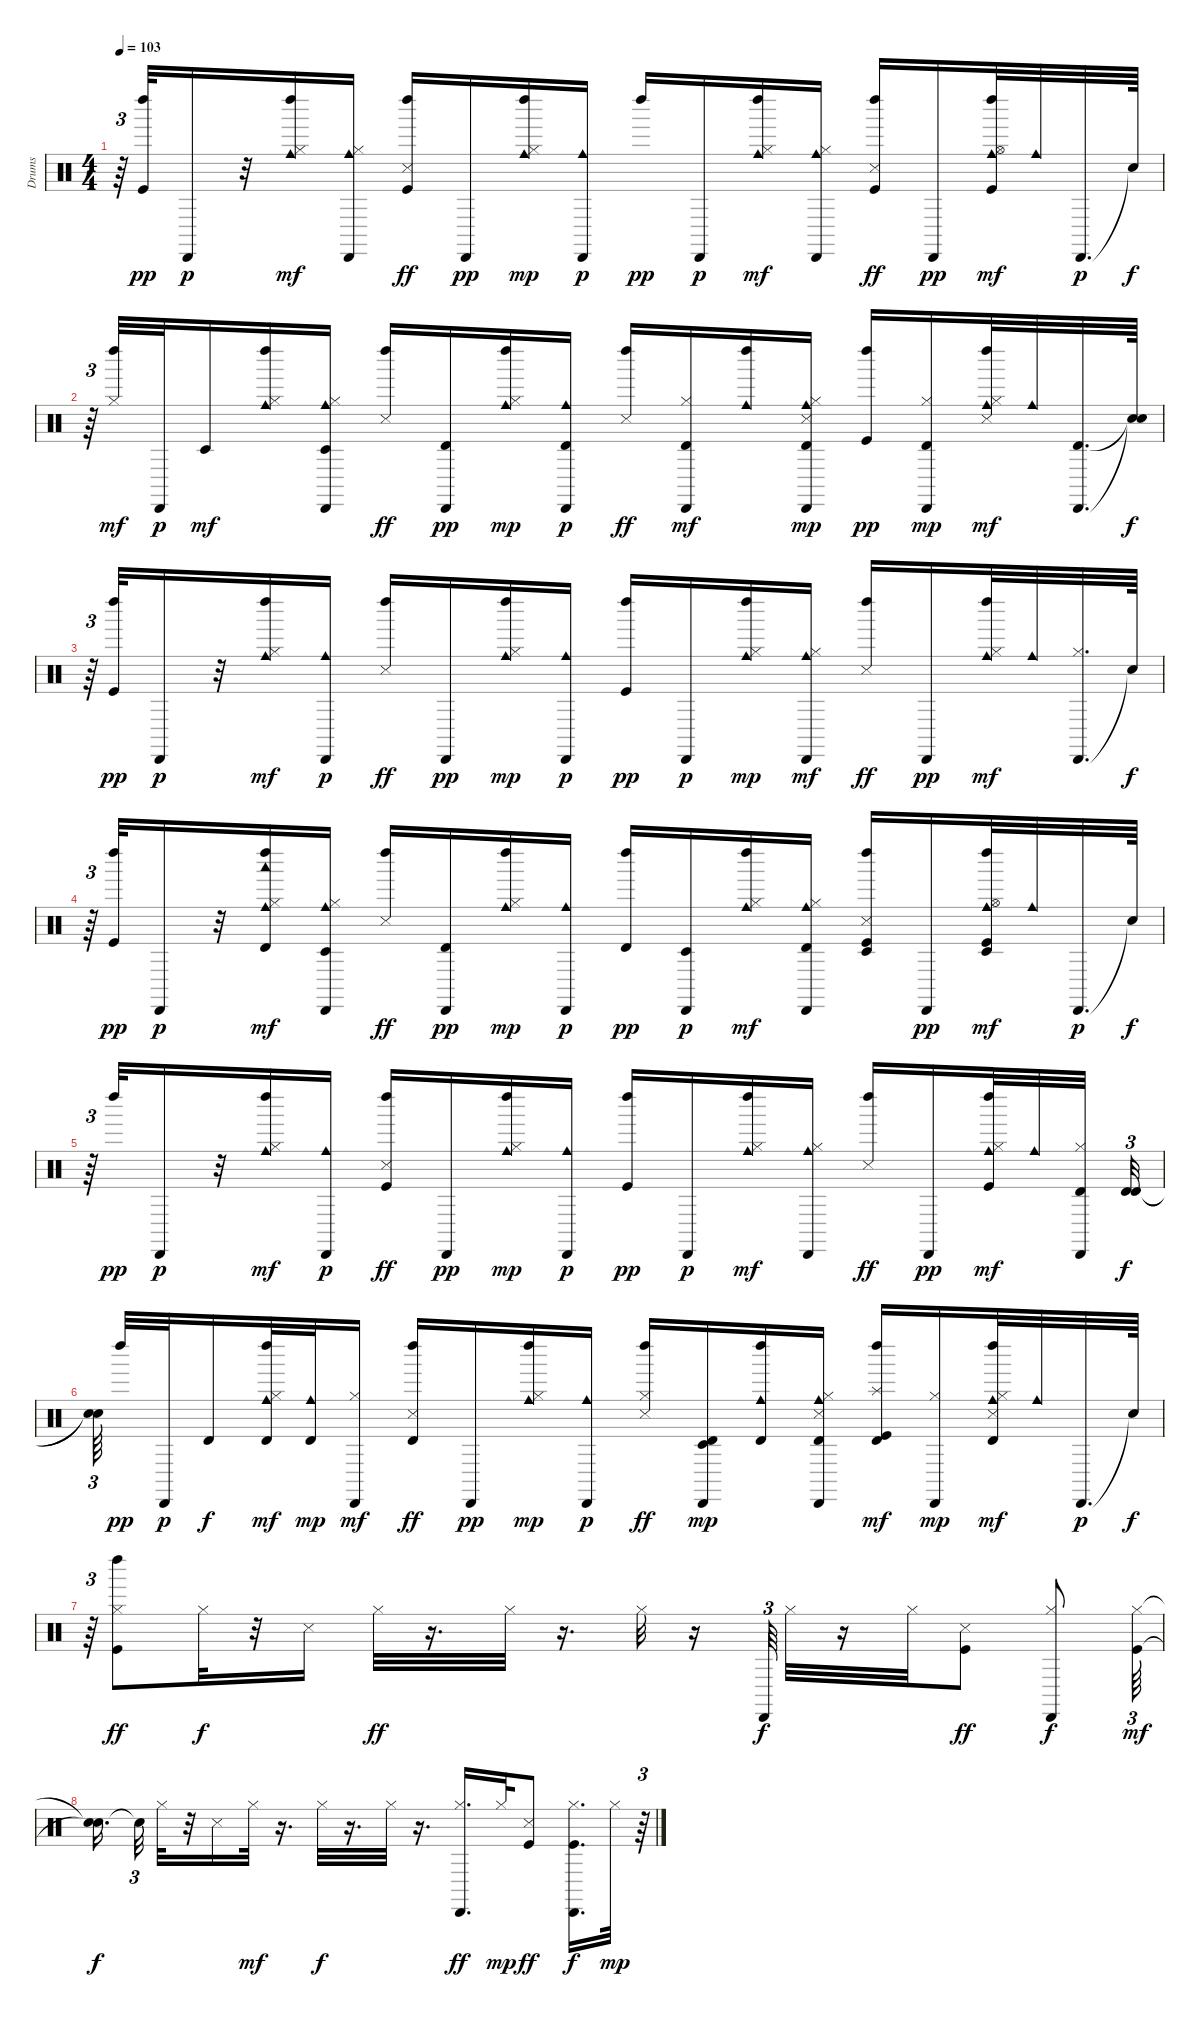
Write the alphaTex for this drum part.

\track ("Drums" "Drums") {instrument percussion}
\staff {score}
\articulation defaults
\ts (4 4)
\tempo 103
\clef neutral
\ks c
r.64{tu (3 2) dy f} ("Left Maraca (hit)" "Kick (hit)").32{dy pp} "Cabasa (hit)".16{dy p} r.32 ("Left Maraca (hit)" "Hi-Hat (closed)" "Cowbell medium (hit)").16{dy mf} ("Cowbell medium (hit)" "Cabasa (hit)" "Hi-Hat (closed)").16 ("Left Maraca (hit)" "Kick (hit)" "Snare (side stick) 3").16{dy ff} "Cabasa (hit)".16{dy pp} ("Left Maraca (hit)" "Hi-Hat (closed)" "Cowbell medium (hit)").16{dy mp} ("Cowbell medium (hit)" "Cabasa (hit)").16{dy p} "Left Maraca (hit)".16{dy pp} "Cabasa (hit)".16{dy p} ("Left Maraca (hit)" "Hi-Hat (closed)" "Cowbell medium (hit)").16{dy mf} ("Cowbell medium (hit)" "Cabasa (hit)" "Hi-Hat (closed)").16 ("Left Maraca (hit)" "Kick (hit)" "Snare (side stick) 3").16{dy ff} "Cabasa (hit)".16{dy pp} ("Left Maraca (hit)" "Hi-Hat (open)" "Kick (hit)" "Cowbell medium (hit)").32{dy mf} "Cowbell medium (hit)".32 "Cabasa (hit)".32{d dy p} "Snare (hit)"{t}.64{dy f} |
r.64{tu (3 2)} ("Left Maraca (hit)" "Hi-Hat (closed)").32{dy mf} "Cabasa (hit)".32{dy p} "Timbale low (hit)".16{dy mf} ("Left Maraca (hit)" "Hi-Hat (closed)" "Cowbell medium (hit)").16 ("Cowbell medium (hit)" "Timbale low (hit)" "Cabasa (hit)" "Hi-Hat (closed)").16 ("Left Maraca (hit)" "Snare (side stick) 3").16{dy ff} ("Timbale high (hit)" "Cabasa (hit)").16{dy pp} ("Left Maraca (hit)" "Hi-Hat (closed)" "Cowbell medium (hit)").16{dy mp} ("Cowbell medium (hit)" "Cabasa (hit)" "Timbale high (hit)").16{dy p} ("Left Maraca (hit)" "Snare (side stick) 3").16{dy ff} ("Cabasa (hit)" "Hi-Hat (closed)" "Timbale high (hit)").16{dy mf} ("Left Maraca (hit)" "Cowbell medium (hit)").16 ("Cowbell medium (hit)" "Cabasa (hit)" "Timbale high (hit)" "Snare (side stick) 3" "Hi-Hat (closed)").16{dy mp} ("Left Maraca (hit)" "Kick (hit)").16{dy pp} ("Timbale high (hit)" "Cabasa (hit)" "Hi-Hat (closed)").16{dy mp} ("Left Maraca (hit)" "Snare (side stick) 3" "Hi-Hat (closed)" "Cowbell medium (hit)").32{dy mf} "Cowbell medium (hit)".32 ("Cabasa (hit)" "Timbale high (hit)").32{d} ("Snare (hit)"{t} "Snare (hit)"{t}).64{dy f} |
r.64{tu (3 2)} ("Left Maraca (hit)" "Kick (hit)").32{dy pp} "Cabasa (hit)".16{dy p} r.32 ("Left Maraca (hit)" "Hi-Hat (closed)" "Cowbell medium (hit)").16{dy mf} ("Cowbell medium (hit)" "Cabasa (hit)").16{dy p} ("Left Maraca (hit)" "Snare (side stick) 3").16{dy ff} "Cabasa (hit)".16{dy pp} ("Left Maraca (hit)" "Hi-Hat (closed)" "Cowbell medium (hit)").16{dy mp} ("Cowbell medium (hit)" "Cabasa (hit)").16{dy p} ("Left Maraca (hit)" "Kick (hit)").16{dy pp} "Cabasa (hit)".16{dy p} ("Left Maraca (hit)" "Hi-Hat (closed)" "Cowbell medium (hit)").16{dy mp} ("Cowbell medium (hit)" "Cabasa (hit)" "Hi-Hat (closed)").16{dy mf} ("Left Maraca (hit)" "Snare (side stick) 3").16{dy ff} "Cabasa (hit)".16{dy pp} ("Left Maraca (hit)" "Hi-Hat (closed)" "Cowbell medium (hit)").32{dy mf} "Cowbell medium (hit)".32 ("Cabasa (hit)" "Hi-Hat (closed)").32{d} "Snare (hit)"{t}.64{dy f} |
r.64{tu (3 2)} ("Left Maraca (hit)" "Kick (hit)").32{dy pp} "Cabasa (hit)".16{dy p} r.32 ("Timbale high (hit)" "Left Maraca (hit)" "Hi-Hat (closed)" "Cowbell medium (hit)" "Woodblock low (hit)").16{dy mf} ("Cowbell medium (hit)" "Timbale low (hit)" "Cabasa (hit)" "Hi-Hat (closed)").16 ("Left Maraca (hit)" "Snare (side stick) 3").16{dy ff} ("Timbale high (hit)" "Cabasa (hit)").16{dy pp} ("Left Maraca (hit)" "Hi-Hat (closed)" "Cowbell medium (hit)").16{dy mp} ("Cowbell medium (hit)" "Cabasa (hit)").16{dy p} ("Left Maraca (hit)" "Timbale high (hit)").16{dy pp} ("Timbale low (hit)" "Cabasa (hit)").16{dy p} ("Left Maraca (hit)" "Hi-Hat (closed)" "Cowbell medium (hit)").16{dy mf} ("Cowbell medium (hit)" "Cabasa (hit)" "Hi-Hat (closed)" "Timbale high (hit)").16 ("Left Maraca (hit)" "Kick (hit)" "Snare (side stick) 3" "Timbale low (hit)").16 "Cabasa (hit)".16{dy pp} ("Timbale low (hit)" "Left Maraca (hit)" "Hi-Hat (open)" "Kick (hit)" "Cowbell medium (hit)").32{dy mf} "Cowbell medium (hit)".32 "Cabasa (hit)".32{d dy p} "Snare (hit)"{t}.64{dy f} |
r.64{tu (3 2)} "Left Maraca (hit)".32{dy pp} "Cabasa (hit)".16{dy p} r.32 ("Left Maraca (hit)" "Hi-Hat (closed)" "Cowbell medium (hit)").16{dy mf} ("Cowbell medium (hit)" "Cabasa (hit)").16{dy p} ("Left Maraca (hit)" "Kick (hit)" "Snare (side stick) 3").16{dy ff} "Cabasa (hit)".16{dy pp} ("Left Maraca (hit)" "Hi-Hat (closed)" "Cowbell medium (hit)").16{dy mp} ("Cowbell medium (hit)" "Cabasa (hit)").16{dy p} ("Left Maraca (hit)" "Kick (hit)").16{dy pp} "Cabasa (hit)".16{dy p} ("Left Maraca (hit)" "Hi-Hat (closed)" "Cowbell medium (hit)").16{dy mf} ("Cowbell medium (hit)" "Cabasa (hit)" "Hi-Hat (closed)").16 ("Left Maraca (hit)" "Snare (side stick) 3").16{dy ff} "Cabasa (hit)".16{dy pp} ("Left Maraca (hit)" "Kick (hit)" "Hi-Hat (closed)" "Cowbell medium (hit)").32{dy mf} "Cowbell medium (hit)".32 ("Cabasa (hit)" "Timbale high (hit)" "Hi-Hat (closed)").32{beam splitsecondary} ("Timbale high (hit)" "Timbale high (hit)").32{tu (3 2) dy f} |
("Snare (hit)"{t} "Snare (hit)"{t}).64{tu (3 2) beam splitsecondary} "Left Maraca (hit)".32{dy pp} "Cabasa (hit)".32{dy p} "Timbale high (hit)".16{dy f} ("Timbale high (hit)" "Left Maraca (hit)" "Hi-Hat (closed)" "Cowbell medium (hit)").32{dy mf} ("Timbale high (hit)" "Cowbell medium (hit)").32{dy mp} ("Cabasa (hit)" "Hi-Hat (closed)").16{dy mf} ("Timbale high (hit)" "Left Maraca (hit)" "Snare (side stick) 3").16{dy ff} "Cabasa (hit)".16{dy pp} ("Left Maraca (hit)" "Hi-Hat (closed)" "Cowbell medium (hit)").16{dy mp} ("Cowbell medium (hit)" "Cabasa (hit)").16{dy p} ("Left Maraca (hit)" "Snare (side stick) 3" "Hi-Hat (closed)").16{dy ff} ("Cabasa (hit)" "Timbale low (hit)" "Timbale high (hit)").16{dy mp} ("Left Maraca (hit)" "Cowbell medium (hit)" "Timbale high (hit)").16 ("Cowbell medium (hit)" "Cabasa (hit)" "Timbale high (hit)" "Snare (side stick) 3" "Hi-Hat (closed)").16 ("Left Maraca (hit)" "Splash (hit)" "Kick (hit)" "Timbale high (hit)").16{dy mf} ("Cabasa (hit)" "Hi-Hat (closed)").16{dy mp} ("Left Maraca (hit)" "Snare (side stick) 3" "Hi-Hat (closed)" "Cowbell medium (hit)" "Timbale high (hit)").32{dy mf} "Cowbell medium (hit)".32 "Cabasa (hit)".32{d dy p} "Snare (hit)"{t}.64{dy f} |
r.64{tu (3 2)} ("Left Maraca (hit)" "Kick (hit)" "Hi-Hat (closed)").8{dy ff} "Hi-Hat (closed)".32{dy f} r.32 "Snare (side stick) 3".16 "Hi-Hat (closed)".32{dy ff} r.16{d} "Hi-Hat (closed)".32 r.16{d} "Hi-Hat (closed)".32 r.16 "Cabasa (hit)".64{tu (3 2) dy f} "Hi-Hat (closed)".32 r.16 "Hi-Hat (closed)".32 ("Kick (hit)" "Snare (side stick) 3").8{dy ff} ("Cabasa (hit)" "Hi-Hat (closed)").8{dy f} ("Kick (hit)" "Hi-Hat (closed)").64{tu (3 2) dy mf} |
("Snare (hit)"{t} "Snare (hit)"{t}).16{d dy f beam splitsecondary} "Snare (hit)"{t}.32{tu (3 2)} "Hi-Hat (closed)".32 r.32 "Snare (side stick) 3".16 "Hi-Hat (closed)".32{dy mf} r.16{d} "Hi-Hat (closed)".32{dy f} r.16{d} "Hi-Hat (closed)".32 r.16{d} ("Cabasa (hit)" "Hi-Hat (closed)").16{d dy ff} "Hi-Hat (closed)".32{dy mp} ("Kick (hit)" "Snare (side stick) 3").8{dy ff} ("Cabasa (hit)" "Kick (hit)" "Hi-Hat (closed)").16{d dy f} "Hi-Hat (closed)".32{dy mp} r.64{tu (3 2)}
